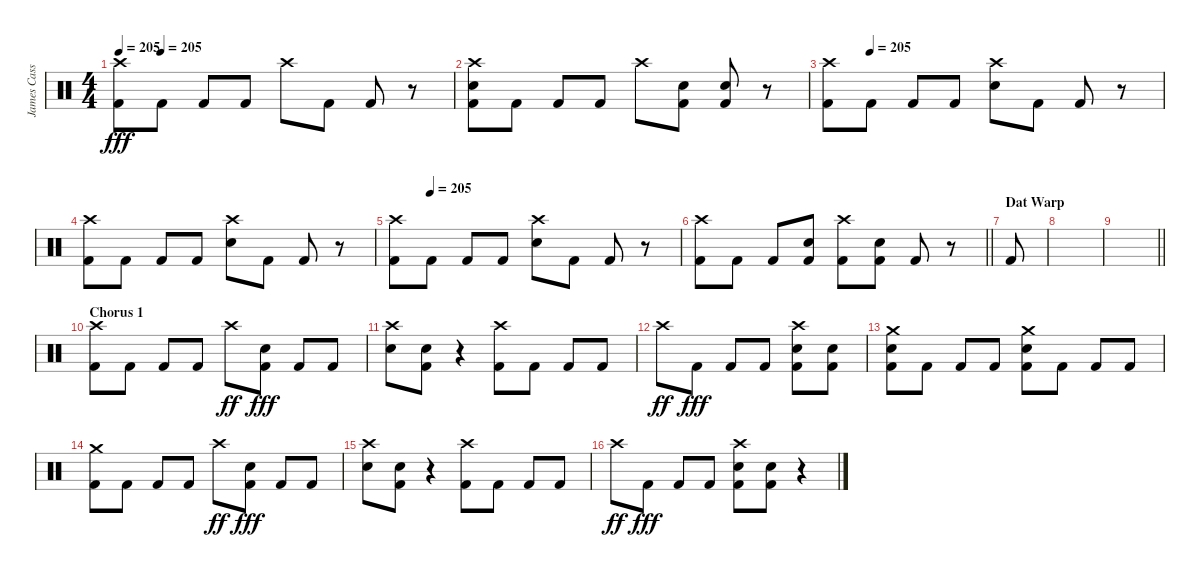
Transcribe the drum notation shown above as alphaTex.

\track ("James Cassels" "James Cass") {instrument percussion}
\staff {score}
\articulation defaults
\ts (4 4)
\tempo 205
\tempo (205 0.125)
\clef neutral
\ks c
("Crash high (hit)" "Kick (hit) 2").8{dy fff} "Kick (hit) 2".8 "Kick (hit) 2".8 "Kick (hit) 2".8 "Crash high (hit)".8 "Kick (hit) 2".8 "Kick (hit) 2".8 r.8 |
("Crash high (hit)" "Electric Snare (hit)" "Kick (hit) 2").8 "Kick (hit) 2".8 "Kick (hit) 2".8 "Kick (hit) 2".8 "Crash high (hit)".8 ("Electric Snare (hit)" "Kick (hit) 2").8 ("Electric Snare (hit)" "Kick (hit) 2").8 r.8 |
\tempo (205 0.125)
("Crash high (hit)" "Kick (hit) 2").8 "Kick (hit) 2".8 "Kick (hit) 2".8 "Kick (hit) 2".8 ("Crash high (hit)" "Electric Snare (hit)").8 "Kick (hit) 2".8 "Kick (hit) 2".8 r.8 |
("Crash high (hit)" "Kick (hit) 2").8 "Kick (hit) 2".8 "Kick (hit) 2".8 "Kick (hit) 2".8 ("Crash high (hit)" "Electric Snare (hit)").8 "Kick (hit) 2".8 "Kick (hit) 2".8 r.8 |
\tempo (205 0.125)
("Crash high (hit)" "Kick (hit) 2").8 "Kick (hit) 2".8 "Kick (hit) 2".8 "Kick (hit) 2".8 ("Crash high (hit)" "Electric Snare (hit)").8 "Kick (hit) 2".8 "Kick (hit) 2".8 r.8 |
\barLineRight lightlight
("Crash high (hit)" "Kick (hit) 2").8 "Kick (hit) 2".8 "Kick (hit) 2".8 ("Electric Snare (hit)" "Kick (hit) 2").8 ("Crash high (hit)" "Kick (hit) 2").8 ("Electric Snare (hit)" "Kick (hit) 2").8 "Kick (hit) 2".8 r.8 |
\section ("" "Dat Warp")
"Kick (hit) 2".8 |
|
\barLineRight lightlight
|
\section ("" "Chorus 1")
("Crash high (hit)" "Kick (hit) 2").8 "Kick (hit) 2".8 "Kick (hit) 2".8 "Kick (hit) 2".8 "Crash high (hit)".8{dy ff} ("Electric Snare (hit)" "Kick (hit) 2").8{dy fff} "Kick (hit) 2".8 "Kick (hit) 2".8 |
("Crash high (hit)" "Electric Snare (hit)").8 ("Electric Snare (hit)" "Kick (hit) 2").8 r.4 ("Crash high (hit)" "Kick (hit) 2").8 "Kick (hit) 2".8 "Kick (hit) 2".8 "Kick (hit) 2".8 |
"Crash high (hit)".8{dy ff} "Kick (hit) 2".8{dy fff} "Kick (hit) 2".8 "Kick (hit) 2".8 ("Crash high (hit)" "Electric Snare (hit)" "Kick (hit) 2").8 ("Electric Snare (hit)" "Kick (hit) 2").8 |
("Crash medium (hit)" "Electric Snare (hit)" "Kick (hit) 2").8 "Kick (hit) 2".8 "Kick (hit) 2".8 "Kick (hit) 2".8 ("Crash medium (hit)" "Electric Snare (hit)" "Kick (hit) 2").8 "Kick (hit) 2".8 "Kick (hit) 2".8 "Kick (hit) 2".8 |
("Crash medium (hit)" "Kick (hit) 2").8 "Kick (hit) 2".8 "Kick (hit) 2".8 "Kick (hit) 2".8 "Crash high (hit)".8{dy ff} ("Electric Snare (hit)" "Kick (hit) 2").8{dy fff} "Kick (hit) 2".8 "Kick (hit) 2".8 |
("Crash high (hit)" "Electric Snare (hit)").8 ("Electric Snare (hit)" "Kick (hit) 2").8 r.4 ("Crash high (hit)" "Kick (hit) 2").8 "Kick (hit) 2".8 "Kick (hit) 2".8 "Kick (hit) 2".8 |
"Crash high (hit)".8{dy ff} "Kick (hit) 2".8{dy fff} "Kick (hit) 2".8 "Kick (hit) 2".8 ("Crash high (hit)" "Electric Snare (hit)" "Kick (hit) 2").8 ("Electric Snare (hit)" "Kick (hit) 2").8 r.4
